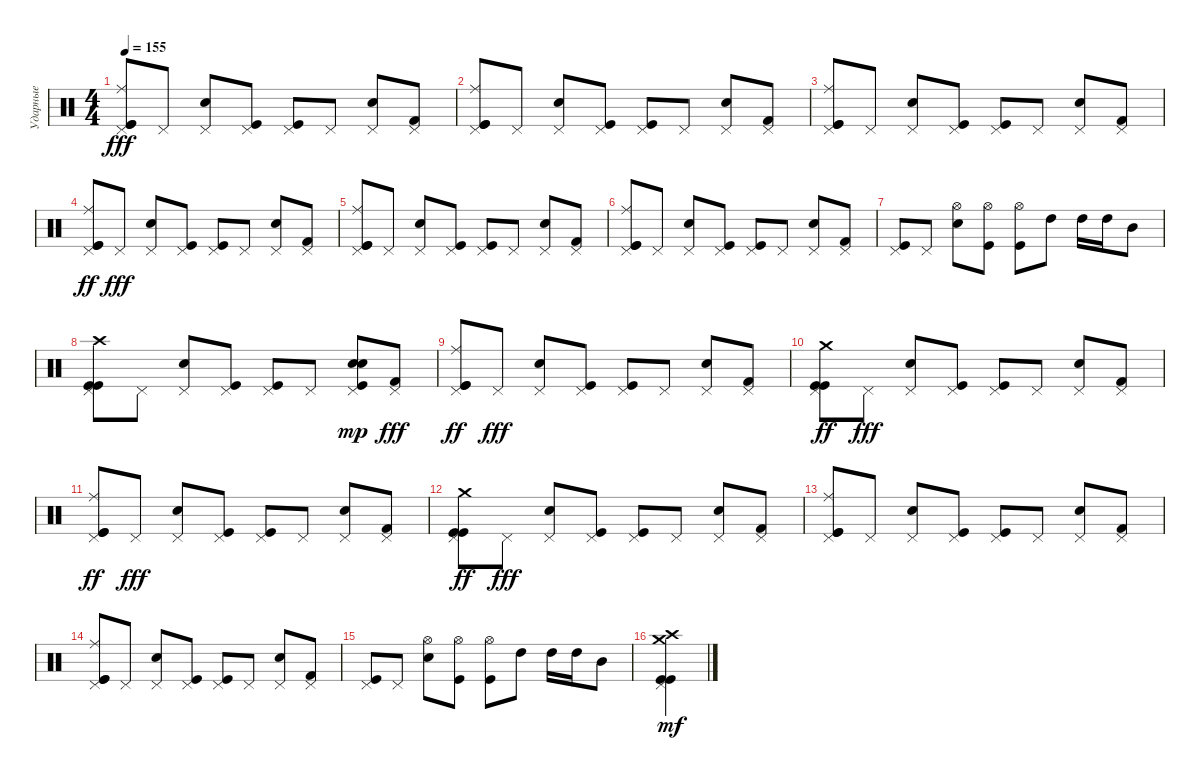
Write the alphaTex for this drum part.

\track ("Ударные" "Ударные") {instrument percussion}
\staff
\articulation defaults
\ts (4 4)
\tempo 155
\clef neutral
\ks c
("Kick (hit)" "Pedal Hi-Hat (hit)" "Kick (hit)" "Ride (middle)").8{dy fff} "Pedal Hi-Hat (hit)".8 ("Pedal Hi-Hat (hit)" "Snare (hit) 2").8 ("Pedal Hi-Hat (hit)" "Kick (hit)").8 ("Pedal Hi-Hat (hit)" "Kick (hit)").8 "Pedal Hi-Hat (hit)".8 ("Snare (hit) 2" "Pedal Hi-Hat (hit)").8 ("Kick (hit) 2" "Pedal Hi-Hat (hit)").8 |
("Kick (hit)" "Pedal Hi-Hat (hit)" "Kick (hit)" "Ride (middle)").8 "Pedal Hi-Hat (hit)".8 ("Pedal Hi-Hat (hit)" "Snare (hit) 2").8 ("Pedal Hi-Hat (hit)" "Kick (hit)").8 ("Pedal Hi-Hat (hit)" "Kick (hit)").8 "Pedal Hi-Hat (hit)".8 ("Snare (hit) 2" "Pedal Hi-Hat (hit)").8 ("Kick (hit) 2" "Pedal Hi-Hat (hit)").8 |
("Kick (hit)" "Pedal Hi-Hat (hit)" "Kick (hit)" "Ride (middle)").8 "Pedal Hi-Hat (hit)".8 ("Pedal Hi-Hat (hit)" "Snare (hit) 2").8 ("Pedal Hi-Hat (hit)" "Kick (hit)").8 ("Pedal Hi-Hat (hit)" "Kick (hit)").8 "Pedal Hi-Hat (hit)".8 ("Snare (hit) 2" "Pedal Hi-Hat (hit)").8 ("Kick (hit) 2" "Pedal Hi-Hat (hit)").8 |
("Kick (hit)" "Pedal Hi-Hat (hit)" "Kick (hit)" "Ride (middle)").8{dy ff} "Pedal Hi-Hat (hit)".8{dy fff} ("Pedal Hi-Hat (hit)" "Snare (hit) 2").8 ("Pedal Hi-Hat (hit)" "Kick (hit)").8 ("Pedal Hi-Hat (hit)" "Kick (hit)").8 "Pedal Hi-Hat (hit)".8 ("Snare (hit) 2" "Pedal Hi-Hat (hit)").8 ("Kick (hit) 2" "Pedal Hi-Hat (hit)").8 |
("Kick (hit)" "Pedal Hi-Hat (hit)" "Kick (hit)" "Ride (middle)").8 "Pedal Hi-Hat (hit)".8 ("Pedal Hi-Hat (hit)" "Snare (hit) 2").8 ("Pedal Hi-Hat (hit)" "Kick (hit)").8 ("Pedal Hi-Hat (hit)" "Kick (hit)").8 "Pedal Hi-Hat (hit)".8 ("Snare (hit) 2" "Pedal Hi-Hat (hit)").8 ("Kick (hit) 2" "Pedal Hi-Hat (hit)").8 |
("Kick (hit)" "Pedal Hi-Hat (hit)" "Kick (hit)" "Ride (middle)").8 "Pedal Hi-Hat (hit)".8 ("Pedal Hi-Hat (hit)" "Snare (hit) 2").8 ("Pedal Hi-Hat (hit)" "Kick (hit)").8 ("Pedal Hi-Hat (hit)" "Kick (hit)").8 "Pedal Hi-Hat (hit)".8 ("Snare (hit) 2" "Pedal Hi-Hat (hit)").8 ("Kick (hit) 2" "Pedal Hi-Hat (hit)").8 |
("Kick (hit)" "Pedal Hi-Hat (hit)").8 "Pedal Hi-Hat (hit)".8 ("Snare (hit) 2" "Hi-Hat (open)").8 ("Kick (hit)" "Hi-Hat (open)").8 ("Kick (hit)" "Hi-Hat (open)").8 "High Tom (hit)".8 "High Tom (hit)".16 "High Tom (hit)".16 "Mid Tom (hit)".8 |
("Kick (hit)" "Pedal Hi-Hat (hit)" "Kick (hit)" "Crash high (hit)").8 "Pedal Hi-Hat (hit)".8 ("Pedal Hi-Hat (hit)" "Snare (hit) 2").8 ("Pedal Hi-Hat (hit)" "Kick (hit)").8 ("Pedal Hi-Hat (hit)" "Kick (hit)").8 "Pedal Hi-Hat (hit)".8 ("Snare (hit) 2" "Pedal Hi-Hat (hit)" "Kick (hit)" "Electric Snare (hit)").8{dy mp} ("Kick (hit) 2" "Pedal Hi-Hat (hit)").8{dy fff} |
("Kick (hit)" "Pedal Hi-Hat (hit)" "Kick (hit)" "Ride (middle)").8{dy ff} "Pedal Hi-Hat (hit)".8{dy fff} ("Pedal Hi-Hat (hit)" "Snare (hit) 2").8 ("Pedal Hi-Hat (hit)" "Kick (hit)").8 ("Pedal Hi-Hat (hit)" "Kick (hit)").8 "Pedal Hi-Hat (hit)".8 ("Snare (hit) 2" "Pedal Hi-Hat (hit)").8 ("Kick (hit) 2" "Pedal Hi-Hat (hit)").8 |
("Kick (hit)" "Pedal Hi-Hat (hit)" "Kick (hit)" "Crash medium (hit)").8{dy ff} "Pedal Hi-Hat (hit)".8{dy fff} ("Pedal Hi-Hat (hit)" "Snare (hit) 2").8 ("Pedal Hi-Hat (hit)" "Kick (hit)").8 ("Pedal Hi-Hat (hit)" "Kick (hit)").8 "Pedal Hi-Hat (hit)".8 ("Snare (hit) 2" "Pedal Hi-Hat (hit)").8 ("Kick (hit) 2" "Pedal Hi-Hat (hit)").8 |
("Kick (hit)" "Pedal Hi-Hat (hit)" "Kick (hit)" "Ride (middle)").8{dy ff} "Pedal Hi-Hat (hit)".8{dy fff} ("Pedal Hi-Hat (hit)" "Snare (hit) 2").8 ("Pedal Hi-Hat (hit)" "Kick (hit)").8 ("Pedal Hi-Hat (hit)" "Kick (hit)").8 "Pedal Hi-Hat (hit)".8 ("Snare (hit) 2" "Pedal Hi-Hat (hit)").8 ("Kick (hit) 2" "Pedal Hi-Hat (hit)").8 |
("Kick (hit)" "Pedal Hi-Hat (hit)" "Kick (hit)" "Crash medium (hit)").8{dy ff} "Pedal Hi-Hat (hit)".8{dy fff} ("Pedal Hi-Hat (hit)" "Snare (hit) 2").8 ("Pedal Hi-Hat (hit)" "Kick (hit)").8 ("Pedal Hi-Hat (hit)" "Kick (hit)").8 "Pedal Hi-Hat (hit)".8 ("Snare (hit) 2" "Pedal Hi-Hat (hit)").8 ("Kick (hit) 2" "Pedal Hi-Hat (hit)").8 |
("Kick (hit)" "Pedal Hi-Hat (hit)" "Kick (hit)" "Ride (middle)").8 "Pedal Hi-Hat (hit)".8 ("Pedal Hi-Hat (hit)" "Snare (hit) 2").8 ("Pedal Hi-Hat (hit)" "Kick (hit)").8 ("Pedal Hi-Hat (hit)" "Kick (hit)").8 "Pedal Hi-Hat (hit)".8 ("Snare (hit) 2" "Pedal Hi-Hat (hit)").8 ("Kick (hit) 2" "Pedal Hi-Hat (hit)").8 |
("Kick (hit)" "Pedal Hi-Hat (hit)" "Kick (hit)" "Ride (middle)").8 "Pedal Hi-Hat (hit)".8 ("Pedal Hi-Hat (hit)" "Snare (hit) 2").8 ("Pedal Hi-Hat (hit)" "Kick (hit)").8 ("Pedal Hi-Hat (hit)" "Kick (hit)").8 "Pedal Hi-Hat (hit)".8 ("Snare (hit) 2" "Pedal Hi-Hat (hit)").8 ("Kick (hit) 2" "Pedal Hi-Hat (hit)").8 |
("Kick (hit)" "Pedal Hi-Hat (hit)").8 "Pedal Hi-Hat (hit)".8 ("Snare (hit) 2" "Hi-Hat (open)").8 ("Kick (hit)" "Hi-Hat (open)").8 ("Kick (hit)" "Hi-Hat (open)").8 "High Tom (hit)".8 "High Tom (hit)".16 "High Tom (hit)".16 "Mid Tom (hit)".8 |
("Crash high (hit)" "Kick (hit)" "Pedal Hi-Hat (hit)" "Kick (hit)" "Crash medium (hit)").4{dy mf}
